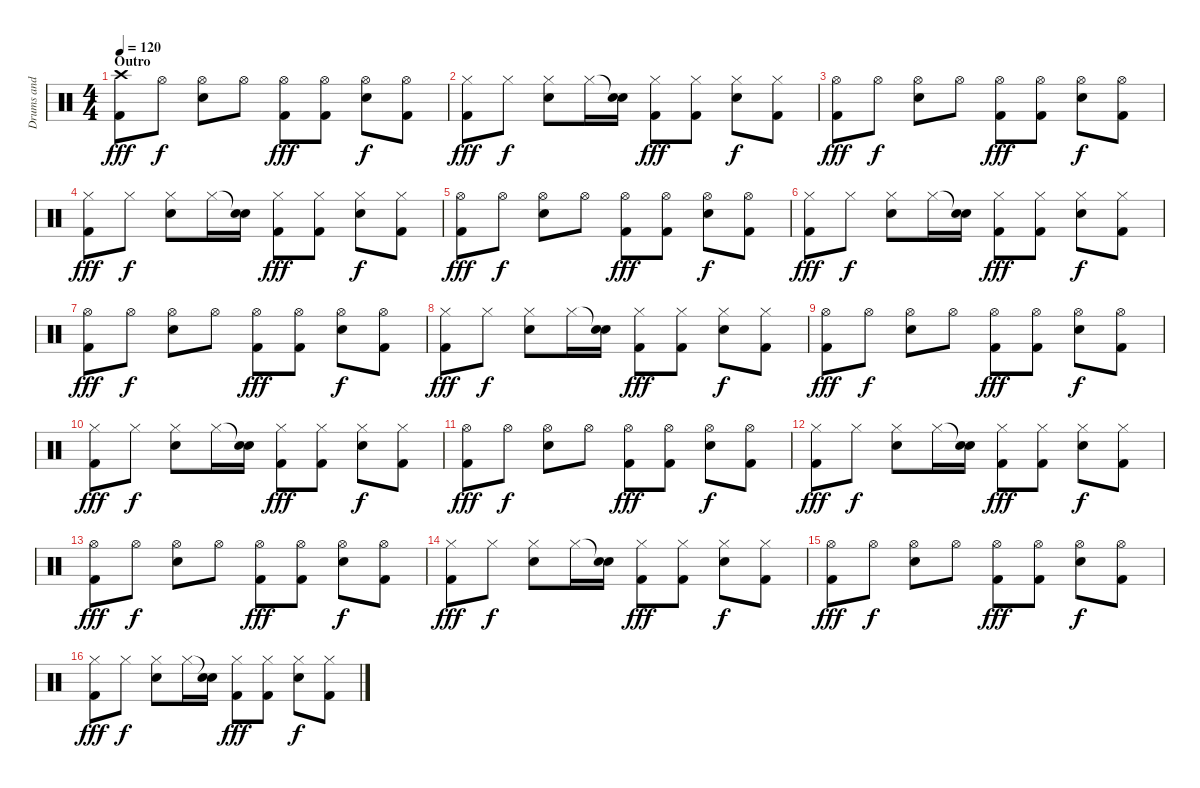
\track ("Drums and Percussion" "Drums and ") {instrument percussion}
\staff {score}
\articulation defaults
\ts (4 4)
\section ("" "Outro")
\tempo 120
\clef neutral
\ks c
("Crash high (hit)" "Kick (hit) 2").8{dy fff} "Hi-Hat (open)".8{dy f} ("Hi-Hat (open)" "Snare (hit) 2").8 "Hi-Hat (open)".8 ("Hi-Hat (open)" "Kick (hit) 2").8{dy fff} ("Hi-Hat (open)" "Kick (hit) 2").8 ("Hi-Hat (open)" "Snare (hit) 2").8{dy f} ("Hi-Hat (open)" "Kick (hit) 2").8 |
("Hi-Hat (closed)" "Kick (hit) 2").8{dy fff} "Hi-Hat (closed)".8{dy f} ("Hi-Hat (closed)" "Snare (hit) 2").8 "Hi-Hat (closed)".16 ("Snare (hit)"{t} "Snare (hit) 2").16 ("Hi-Hat (closed)" "Kick (hit) 2").8{dy fff} ("Hi-Hat (closed)" "Kick (hit) 2").8 ("Hi-Hat (closed)" "Snare (hit) 2").8{dy f} ("Hi-Hat (closed)" "Kick (hit) 2").8 |
("Hi-Hat (open)" "Kick (hit) 2").8{dy fff} "Hi-Hat (open)".8{dy f} ("Hi-Hat (open)" "Snare (hit) 2").8 "Hi-Hat (open)".8 ("Hi-Hat (open)" "Kick (hit) 2").8{dy fff} ("Hi-Hat (open)" "Kick (hit) 2").8 ("Hi-Hat (open)" "Snare (hit) 2").8{dy f} ("Hi-Hat (open)" "Kick (hit) 2").8 |
("Hi-Hat (closed)" "Kick (hit) 2").8{dy fff} "Hi-Hat (closed)".8{dy f} ("Hi-Hat (closed)" "Snare (hit) 2").8 "Hi-Hat (closed)".16 ("Snare (hit)"{t} "Snare (hit) 2").16 ("Hi-Hat (closed)" "Kick (hit) 2").8{dy fff} ("Hi-Hat (closed)" "Kick (hit) 2").8 ("Hi-Hat (closed)" "Snare (hit) 2").8{dy f} ("Hi-Hat (closed)" "Kick (hit) 2").8 |
("Hi-Hat (open)" "Kick (hit) 2").8{dy fff} "Hi-Hat (open)".8{dy f} ("Hi-Hat (open)" "Snare (hit) 2").8 "Hi-Hat (open)".8 ("Hi-Hat (open)" "Kick (hit) 2").8{dy fff} ("Hi-Hat (open)" "Kick (hit) 2").8 ("Hi-Hat (open)" "Snare (hit) 2").8{dy f} ("Hi-Hat (open)" "Kick (hit) 2").8 |
("Hi-Hat (closed)" "Kick (hit) 2").8{dy fff} "Hi-Hat (closed)".8{dy f} ("Hi-Hat (closed)" "Snare (hit) 2").8 "Hi-Hat (closed)".16 ("Snare (hit)"{t} "Snare (hit) 2").16 ("Hi-Hat (closed)" "Kick (hit) 2").8{dy fff} ("Hi-Hat (closed)" "Kick (hit) 2").8 ("Hi-Hat (closed)" "Snare (hit) 2").8{dy f} ("Hi-Hat (closed)" "Kick (hit) 2").8 |
("Hi-Hat (open)" "Kick (hit) 2").8{dy fff} "Hi-Hat (open)".8{dy f} ("Hi-Hat (open)" "Snare (hit) 2").8 "Hi-Hat (open)".8 ("Hi-Hat (open)" "Kick (hit) 2").8{dy fff} ("Hi-Hat (open)" "Kick (hit) 2").8 ("Hi-Hat (open)" "Snare (hit) 2").8{dy f} ("Hi-Hat (open)" "Kick (hit) 2").8 |
("Hi-Hat (closed)" "Kick (hit) 2").8{dy fff} "Hi-Hat (closed)".8{dy f} ("Hi-Hat (closed)" "Snare (hit) 2").8 "Hi-Hat (closed)".16 ("Snare (hit)"{t} "Snare (hit) 2").16 ("Hi-Hat (closed)" "Kick (hit) 2").8{dy fff} ("Hi-Hat (closed)" "Kick (hit) 2").8 ("Hi-Hat (closed)" "Snare (hit) 2").8{dy f} ("Hi-Hat (closed)" "Kick (hit) 2").8 |
("Hi-Hat (open)" "Kick (hit) 2").8{dy fff} "Hi-Hat (open)".8{dy f} ("Hi-Hat (open)" "Snare (hit) 2").8 "Hi-Hat (open)".8 ("Hi-Hat (open)" "Kick (hit) 2").8{dy fff} ("Hi-Hat (open)" "Kick (hit) 2").8 ("Hi-Hat (open)" "Snare (hit) 2").8{dy f} ("Hi-Hat (open)" "Kick (hit) 2").8 |
("Hi-Hat (closed)" "Kick (hit) 2").8{dy fff} "Hi-Hat (closed)".8{dy f} ("Hi-Hat (closed)" "Snare (hit) 2").8 "Hi-Hat (closed)".16 ("Snare (hit)"{t} "Snare (hit) 2").16 ("Hi-Hat (closed)" "Kick (hit) 2").8{dy fff} ("Hi-Hat (closed)" "Kick (hit) 2").8 ("Hi-Hat (closed)" "Snare (hit) 2").8{dy f} ("Hi-Hat (closed)" "Kick (hit) 2").8 |
("Hi-Hat (open)" "Kick (hit) 2").8{dy fff} "Hi-Hat (open)".8{dy f} ("Hi-Hat (open)" "Snare (hit) 2").8 "Hi-Hat (open)".8 ("Hi-Hat (open)" "Kick (hit) 2").8{dy fff} ("Hi-Hat (open)" "Kick (hit) 2").8 ("Hi-Hat (open)" "Snare (hit) 2").8{dy f} ("Hi-Hat (open)" "Kick (hit) 2").8 |
("Hi-Hat (closed)" "Kick (hit) 2").8{dy fff} "Hi-Hat (closed)".8{dy f} ("Hi-Hat (closed)" "Snare (hit) 2").8 "Hi-Hat (closed)".16 ("Snare (hit)"{t} "Snare (hit) 2").16 ("Hi-Hat (closed)" "Kick (hit) 2").8{dy fff} ("Hi-Hat (closed)" "Kick (hit) 2").8 ("Hi-Hat (closed)" "Snare (hit) 2").8{dy f} ("Hi-Hat (closed)" "Kick (hit) 2").8 |
("Hi-Hat (open)" "Kick (hit) 2").8{dy fff} "Hi-Hat (open)".8{dy f} ("Hi-Hat (open)" "Snare (hit) 2").8 "Hi-Hat (open)".8 ("Hi-Hat (open)" "Kick (hit) 2").8{dy fff} ("Hi-Hat (open)" "Kick (hit) 2").8 ("Hi-Hat (open)" "Snare (hit) 2").8{dy f} ("Hi-Hat (open)" "Kick (hit) 2").8 |
("Hi-Hat (closed)" "Kick (hit) 2").8{dy fff} "Hi-Hat (closed)".8{dy f} ("Hi-Hat (closed)" "Snare (hit) 2").8 "Hi-Hat (closed)".16 ("Snare (hit)"{t} "Snare (hit) 2").16 ("Hi-Hat (closed)" "Kick (hit) 2").8{dy fff} ("Hi-Hat (closed)" "Kick (hit) 2").8 ("Hi-Hat (closed)" "Snare (hit) 2").8{dy f} ("Hi-Hat (closed)" "Kick (hit) 2").8 |
("Hi-Hat (open)" "Kick (hit) 2").8{dy fff} "Hi-Hat (open)".8{dy f} ("Hi-Hat (open)" "Snare (hit) 2").8 "Hi-Hat (open)".8 ("Hi-Hat (open)" "Kick (hit) 2").8{dy fff} ("Hi-Hat (open)" "Kick (hit) 2").8 ("Hi-Hat (open)" "Snare (hit) 2").8{dy f} ("Hi-Hat (open)" "Kick (hit) 2").8 |
("Hi-Hat (closed)" "Kick (hit) 2").8{dy fff} "Hi-Hat (closed)".8{dy f} ("Hi-Hat (closed)" "Snare (hit) 2").8 "Hi-Hat (closed)".16 ("Snare (hit)"{t} "Snare (hit) 2").16 ("Hi-Hat (closed)" "Kick (hit) 2").8{dy fff} ("Hi-Hat (closed)" "Kick (hit) 2").8 ("Hi-Hat (closed)" "Snare (hit) 2").8{dy f} ("Hi-Hat (closed)" "Kick (hit) 2").8
